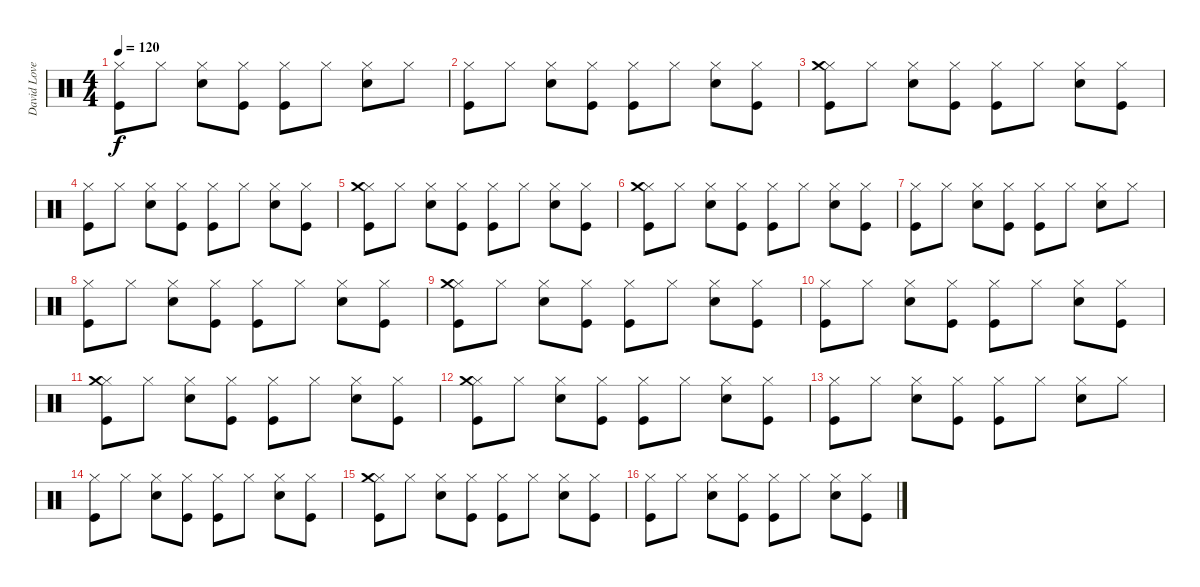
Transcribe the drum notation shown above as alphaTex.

\track ("David Lovering" "David Love") {instrument percussion}
\staff {score}
\articulation defaults
\ts (4 4)
\tempo 120
\clef neutral
\ks c
("Hi-Hat (closed)" "Kick (hit)").8{dy f} "Hi-Hat (closed)".8 ("Hi-Hat (closed)" "Snare (hit) 2").8 ("Hi-Hat (closed)" "Kick (hit)").8 ("Hi-Hat (closed)" "Kick (hit)").8 "Hi-Hat (closed)".8 ("Hi-Hat (closed)" "Snare (hit) 2").8 "Hi-Hat (closed)".8 |
("Hi-Hat (closed)" "Kick (hit)").8 "Hi-Hat (closed)".8 ("Hi-Hat (closed)" "Snare (hit) 2").8 ("Hi-Hat (closed)" "Kick (hit)").8 ("Hi-Hat (closed)" "Kick (hit)").8 "Hi-Hat (closed)".8 ("Hi-Hat (closed)" "Snare (hit) 2").8 ("Hi-Hat (closed)" "Kick (hit)").8 |
("Hi-Hat (closed)" "Crash medium (hit)" "Kick (hit)").8 "Hi-Hat (closed)".8 ("Hi-Hat (closed)" "Snare (hit) 2").8 ("Hi-Hat (closed)" "Kick (hit)").8 ("Hi-Hat (closed)" "Kick (hit)").8 "Hi-Hat (closed)".8 ("Hi-Hat (closed)" "Snare (hit) 2").8 ("Hi-Hat (closed)" "Kick (hit)").8 |
("Hi-Hat (closed)" "Kick (hit)").8 "Hi-Hat (closed)".8 ("Hi-Hat (closed)" "Snare (hit) 2").8 ("Hi-Hat (closed)" "Kick (hit)").8 ("Hi-Hat (closed)" "Kick (hit)").8 "Hi-Hat (closed)".8 ("Hi-Hat (closed)" "Snare (hit) 2").8 ("Hi-Hat (closed)" "Kick (hit)").8 |
("Hi-Hat (closed)" "Crash medium (hit)" "Kick (hit)").8 "Hi-Hat (closed)".8 ("Hi-Hat (closed)" "Snare (hit) 2").8 ("Hi-Hat (closed)" "Kick (hit)").8 ("Hi-Hat (closed)" "Kick (hit)").8 "Hi-Hat (closed)".8 ("Hi-Hat (closed)" "Snare (hit) 2").8 ("Hi-Hat (closed)" "Kick (hit)").8 |
("Hi-Hat (closed)" "Crash medium (hit)" "Kick (hit)").8 "Hi-Hat (closed)".8 ("Hi-Hat (closed)" "Snare (hit) 2").8 ("Hi-Hat (closed)" "Kick (hit)").8 ("Hi-Hat (closed)" "Kick (hit)").8 "Hi-Hat (closed)".8 ("Hi-Hat (closed)" "Snare (hit) 2").8 ("Hi-Hat (closed)" "Kick (hit)").8 |
("Hi-Hat (closed)" "Kick (hit)").8 "Hi-Hat (closed)".8 ("Hi-Hat (closed)" "Snare (hit) 2").8 ("Hi-Hat (closed)" "Kick (hit)").8 ("Hi-Hat (closed)" "Kick (hit)").8 "Hi-Hat (closed)".8 ("Hi-Hat (closed)" "Snare (hit) 2").8 "Hi-Hat (closed)".8 |
("Hi-Hat (closed)" "Kick (hit)").8 "Hi-Hat (closed)".8 ("Hi-Hat (closed)" "Snare (hit) 2").8 ("Hi-Hat (closed)" "Kick (hit)").8 ("Hi-Hat (closed)" "Kick (hit)").8 "Hi-Hat (closed)".8 ("Hi-Hat (closed)" "Snare (hit) 2").8 ("Hi-Hat (closed)" "Kick (hit)").8 |
("Hi-Hat (closed)" "Crash medium (hit)" "Kick (hit)").8 "Hi-Hat (closed)".8 ("Hi-Hat (closed)" "Snare (hit) 2").8 ("Hi-Hat (closed)" "Kick (hit)").8 ("Hi-Hat (closed)" "Kick (hit)").8 "Hi-Hat (closed)".8 ("Hi-Hat (closed)" "Snare (hit) 2").8 ("Hi-Hat (closed)" "Kick (hit)").8 |
("Hi-Hat (closed)" "Kick (hit)").8 "Hi-Hat (closed)".8 ("Hi-Hat (closed)" "Snare (hit) 2").8 ("Hi-Hat (closed)" "Kick (hit)").8 ("Hi-Hat (closed)" "Kick (hit)").8 "Hi-Hat (closed)".8 ("Hi-Hat (closed)" "Snare (hit) 2").8 ("Hi-Hat (closed)" "Kick (hit)").8 |
("Hi-Hat (closed)" "Crash medium (hit)" "Kick (hit)").8 "Hi-Hat (closed)".8 ("Hi-Hat (closed)" "Snare (hit) 2").8 ("Hi-Hat (closed)" "Kick (hit)").8 ("Hi-Hat (closed)" "Kick (hit)").8 "Hi-Hat (closed)".8 ("Hi-Hat (closed)" "Snare (hit) 2").8 ("Hi-Hat (closed)" "Kick (hit)").8 |
("Hi-Hat (closed)" "Crash medium (hit)" "Kick (hit)").8 "Hi-Hat (closed)".8 ("Hi-Hat (closed)" "Snare (hit) 2").8 ("Hi-Hat (closed)" "Kick (hit)").8 ("Hi-Hat (closed)" "Kick (hit)").8 "Hi-Hat (closed)".8 ("Hi-Hat (closed)" "Snare (hit) 2").8 ("Hi-Hat (closed)" "Kick (hit)").8 |
("Hi-Hat (closed)" "Kick (hit)").8 "Hi-Hat (closed)".8 ("Hi-Hat (closed)" "Snare (hit) 2").8 ("Hi-Hat (closed)" "Kick (hit)").8 ("Hi-Hat (closed)" "Kick (hit)").8 "Hi-Hat (closed)".8 ("Hi-Hat (closed)" "Snare (hit) 2").8 "Hi-Hat (closed)".8 |
("Hi-Hat (closed)" "Kick (hit)").8 "Hi-Hat (closed)".8 ("Hi-Hat (closed)" "Snare (hit) 2").8 ("Hi-Hat (closed)" "Kick (hit)").8 ("Hi-Hat (closed)" "Kick (hit)").8 "Hi-Hat (closed)".8 ("Hi-Hat (closed)" "Snare (hit) 2").8 ("Hi-Hat (closed)" "Kick (hit)").8 |
("Hi-Hat (closed)" "Crash medium (hit)" "Kick (hit)").8 "Hi-Hat (closed)".8 ("Hi-Hat (closed)" "Snare (hit) 2").8 ("Hi-Hat (closed)" "Kick (hit)").8 ("Hi-Hat (closed)" "Kick (hit)").8 "Hi-Hat (closed)".8 ("Hi-Hat (closed)" "Snare (hit) 2").8 ("Hi-Hat (closed)" "Kick (hit)").8 |
("Hi-Hat (closed)" "Kick (hit)").8 "Hi-Hat (closed)".8 ("Hi-Hat (closed)" "Snare (hit) 2").8 ("Hi-Hat (closed)" "Kick (hit)").8 ("Hi-Hat (closed)" "Kick (hit)").8 "Hi-Hat (closed)".8 ("Hi-Hat (closed)" "Snare (hit) 2").8 ("Hi-Hat (closed)" "Kick (hit)").8
